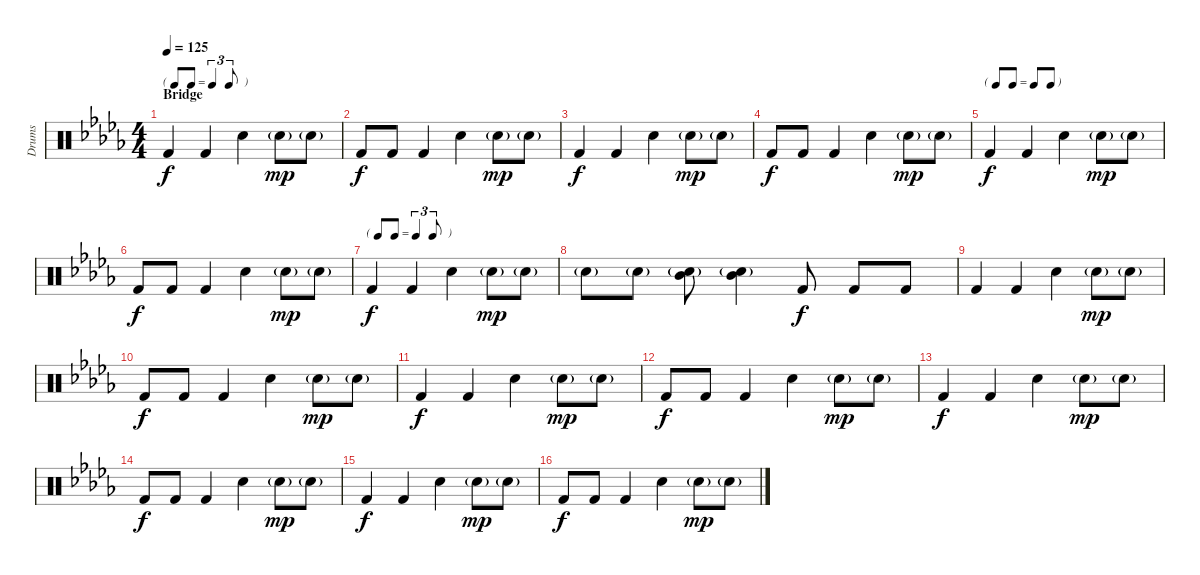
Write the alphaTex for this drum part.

\track ("Drums" "Drums") {instrument percussion}
\staff {score}
\articulation defaults
\ts (4 4)
\tf triplet8th
\section ("" "Bridge")
\tempo 125
\clef neutral
\ks db "Kick (hit) 2".4{dy f} "Kick (hit) 2".4 "Snare (hit) 2".4 "Snare (hit) 2"{g}.8{dy mp} "Snare (hit) 2"{g}.8
|
"Kick (hit) 2".8{dy f} "Kick (hit) 2".8 "Kick (hit) 2".4 "Snare (hit) 2".4 "Snare (hit) 2"{g}.8{dy mp} "Snare (hit) 2"{g}.8 |
"Kick (hit) 2".4{dy f} "Kick (hit) 2".4 "Snare (hit) 2".4 "Snare (hit) 2"{g}.8{dy mp} "Snare (hit) 2"{g}.8 |
"Kick (hit) 2".8{dy f} "Kick (hit) 2".8 "Kick (hit) 2".4 "Snare (hit) 2".4 "Snare (hit) 2"{g}.8{dy mp} "Snare (hit) 2"{g}.8 |
\tf none "Kick (hit) 2".4{dy f} "Kick (hit) 2".4 "Snare (hit) 2".4 "Snare (hit) 2"{g}.8{dy mp} "Snare (hit) 2"{g}.8
|
"Kick (hit) 2".8{dy f} "Kick (hit) 2".8 "Kick (hit) 2".4 "Snare (hit) 2".4 "Snare (hit) 2"{g}.8{dy mp} "Snare (hit) 2"{g}.8 |
\tf triplet8th "Kick (hit) 2".4{dy f} "Kick (hit) 2".4 "Snare (hit) 2".4 "Snare (hit) 2"{g}.8{dy mp} "Snare (hit) 2"{g}.8
|
"Snare (hit) 2"{g}.8 "Snare (hit) 2"{g}.8 ("Mid Tom (hit)" "Snare (hit) 2"{g}).8 ("Mid Tom (hit)" "Snare (hit) 2"{g}).4 "Kick (hit) 2".8{dy f} "Kick (hit) 2".8 "Kick (hit) 2".8 |
"Kick (hit) 2".4 "Kick (hit) 2".4 "Snare (hit) 2".4 "Snare (hit) 2"{g}.8{dy mp} "Snare (hit) 2"{g}.8 |
"Kick (hit) 2".8{dy f} "Kick (hit) 2".8 "Kick (hit) 2".4 "Snare (hit) 2".4 "Snare (hit) 2"{g}.8{dy mp} "Snare (hit) 2"{g}.8 |
"Kick (hit) 2".4{dy f} "Kick (hit) 2".4 "Snare (hit) 2".4 "Snare (hit) 2"{g}.8{dy mp} "Snare (hit) 2"{g}.8 |
"Kick (hit) 2".8{dy f} "Kick (hit) 2".8 "Kick (hit) 2".4 "Snare (hit) 2".4 "Snare (hit) 2"{g}.8{dy mp} "Snare (hit) 2"{g}.8 |
"Kick (hit) 2".4{dy f} "Kick (hit) 2".4 "Snare (hit) 2".4 "Snare (hit) 2"{g}.8{dy mp} "Snare (hit) 2"{g}.8 |
"Kick (hit) 2".8{dy f} "Kick (hit) 2".8 "Kick (hit) 2".4 "Snare (hit) 2".4 "Snare (hit) 2"{g}.8{dy mp} "Snare (hit) 2"{g}.8 |
"Kick (hit) 2".4{dy f} "Kick (hit) 2".4 "Snare (hit) 2".4 "Snare (hit) 2"{g}.8{dy mp} "Snare (hit) 2"{g}.8 |
"Kick (hit) 2".8{dy f} "Kick (hit) 2".8 "Kick (hit) 2".4 "Snare (hit) 2".4 "Snare (hit) 2"{g}.8{dy mp} "Snare (hit) 2"{g}.8
